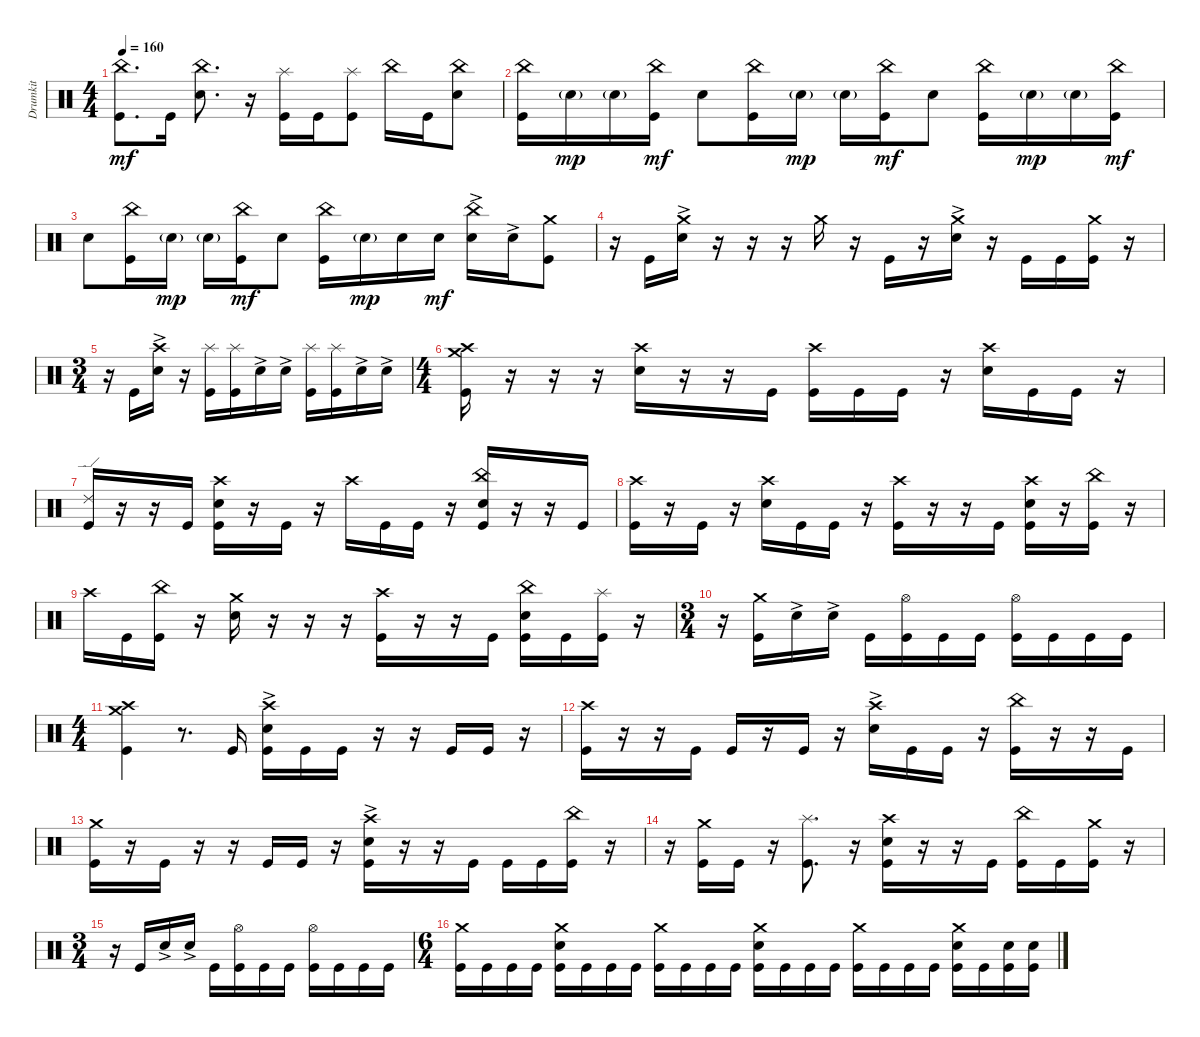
\track ("Drumkit" "Drumkit") {instrument percussion}
\staff {score}
\articulation defaults
\ts (4 4)
\tempo 160
\clef neutral
\ks c
("Kick (hit)" "China (hit)").8{d dy mf} "Kick (hit)".16 ("Snare (hit) 2" "China (hit)").8{d} r.16 ("Kick (hit)" "Splash (hit)").16 "Kick (hit)".16 ("Kick (hit)" "Splash (hit)").8 "China (hit)".16 "Kick (hit)".16 ("Snare (hit) 2" "China (hit)").8 |
("Kick (hit)" "China (hit)").16 "Snare (hit) 2"{g}.16{dy mp} "Snare (hit) 2"{g}.16 ("Kick (hit)" "China (hit)").16{dy mf} "Snare (hit) 2".8 ("Kick (hit)" "China (hit)").16 "Snare (hit) 2"{g}.16{dy mp} "Snare (hit) 2"{g}.16 ("Kick (hit)" "China (hit)").16{dy mf} "Snare (hit) 2".8 ("Kick (hit)" "China (hit)").16 "Snare (hit) 2"{g}.16{dy mp} "Snare (hit) 2"{g}.16 ("Kick (hit)" "China (hit)").16{dy mf} |
"Snare (hit) 2".8 ("Kick (hit)" "China (hit)").16 "Snare (hit) 2"{g}.16{dy mp} "Snare (hit) 2"{g}.16 ("Kick (hit)" "China (hit)").16{dy mf} "Snare (hit) 2".8 ("Kick (hit)" "China (hit)").16 "Snare (hit) 2"{g}.16{dy mp} "Snare (hit) 2".16 "Snare (hit) 2".16{dy mf} ("China (hit)" "Snare (hit) 2"{ac}).16 "Snare (hit) 2"{ac}.16 ("Kick (hit)" "Crash medium (hit)").8 |
r.16 "Kick (hit)".16 ("Snare (hit) 2"{ac} "Crash medium (hit)").16 r.16 r.16 r.16 "Crash medium (hit)".16 r.16 "Kick (hit)".16 r.16 ("Snare (hit) 2"{ac} "Crash medium (hit)").16 r.16 "Kick (hit)".16 "Kick (hit)".16 ("Crash medium (hit)" "Kick (hit)").16 r.16 |
\ts (3 4)
r.16 "Kick (hit)".16 ("Snare (hit) 2"{ac} "Crash high (hit)").16 r.16 ("Kick (hit)" "Splash (hit)").16 ("Kick (hit)" "Splash (hit)").16 "Snare (hit) 2"{ac}.16 "Snare (hit) 2"{ac}.16 ("Splash (hit)" "Kick (hit)").16 ("Splash (hit)" "Kick (hit)").16 "Snare (hit) 2"{ac}.16 "Snare (hit) 2"{ac}.16 |
\ts (4 4)
("Crash high (hit)" "Kick (hit)" "Crash medium (hit)").16 r.16 r.16 r.16 ("Crash high (hit)" "Snare (hit) 2").16 r.16 r.16 "Kick (hit)".16 ("Crash high (hit)" "Kick (hit)").16 "Kick (hit)".16 "Kick (hit)".16 r.16 ("Crash high (hit)" "Snare (hit) 2").16 "Kick (hit)".16 "Kick (hit)".16 r.16 |
("Kick (hit)" "Ride (edge) 2").16 r.16 r.16 "Kick (hit)".16 ("Kick (hit)" "Crash high (hit)" "Snare (hit) 2").16 r.16 "Kick (hit)".16 r.16 "Crash high (hit)".16 "Kick (hit)".16 "Kick (hit)".16 r.16 ("Kick (hit)" "Snare (hit) 2" "China (hit)").16 r.16 r.16 "Kick (hit)".16 |
("Kick (hit)" "Crash high (hit)").16 r.16 "Kick (hit)".16 r.16 ("Crash high (hit)" "Snare (hit) 2").16 "Kick (hit)".16 "Kick (hit)".16 r.16 ("Kick (hit)" "Crash high (hit)").16 r.16 r.16 "Kick (hit)".16 ("Kick (hit)" "Snare (hit) 2" "Crash high (hit)").16 r.16 ("Kick (hit)" "China (hit)").16 r.16 |
"Crash high (hit)".16 "Kick (hit)".16 ("Kick (hit)" "China (hit)").16 r.16 ("Snare (hit) 2" "Crash medium (hit)").16 r.16 r.16 r.16 ("Crash high (hit)" "Kick (hit)").16 r.16 r.16 "Kick (hit)".16 ("Snare (hit) 2" "Kick (hit)" "China (hit)").16 "Kick (hit)".16 ("Kick (hit)" "Splash (hit)").16 r.16 |
\ts (3 4)
r.16 ("Crash medium (hit)" "Kick (hit)").16 "Snare (hit) 2"{ac}.16 "Snare (hit) 2"{ac}.16 "Kick (hit)".16 ("Kick (hit)" "Hi-Hat (open)").16 "Kick (hit)".16 "Kick (hit)".16 ("Kick (hit)" "Hi-Hat (open)").16 "Kick (hit)".16 "Kick (hit)".16 "Kick (hit)".16 |
\ts (4 4)
("Crash high (hit)" "Kick (hit)" "Crash medium (hit)").4 r.8{d} "Kick (hit)".16 ("Crash high (hit)" "Kick (hit)" "Snare (hit) 2"{ac}).16 "Kick (hit)".16 "Kick (hit)".16 r.16 r.16 "Kick (hit)".16 "Kick (hit)".16 r.16 |
("Kick (hit)" "Crash high (hit)").16 r.16 r.16 "Kick (hit)".16 "Kick (hit)".16 r.16 "Kick (hit)".16 r.16 ("Crash high (hit)" "Snare (hit) 2"{ac}).16 "Kick (hit)".16 "Kick (hit)".16 r.16 ("Kick (hit)" "China (hit)").16 r.16 r.16 "Kick (hit)".16 |
("Kick (hit)" "Crash medium (hit)").16 r.16 "Kick (hit)".16 r.16 r.16 "Kick (hit)".16 "Kick (hit)".16 r.16 ("Kick (hit)" "Crash high (hit)" "Snare (hit) 2"{ac}).16 r.16 r.16 "Kick (hit)".16 "Kick (hit)".16 "Kick (hit)".16 ("Kick (hit)" "China (hit)").16 r.16 |
r.16 ("Kick (hit)" "Crash medium (hit)").16 "Kick (hit)".16 r.16 ("Splash (hit)" "Kick (hit)").8{d} r.16 ("Crash high (hit)" "Kick (hit)" "Snare (hit) 2").16 r.16 r.16 "Kick (hit)".16 ("Kick (hit)" "China (hit)").16 "Kick (hit)".16 ("Kick (hit)" "Crash medium (hit)").16 r.16 |
\ts (3 4)
r.16 "Kick (hit)".16 "Snare (hit) 2"{ac}.16 "Snare (hit) 2"{ac}.16 "Kick (hit)".16 ("Kick (hit)" "Hi-Hat (open)").16 "Kick (hit)".16 "Kick (hit)".16 ("Kick (hit)" "Hi-Hat (open)").16 "Kick (hit)".16 "Kick (hit)".16 "Kick (hit)".16 |
\ts (6 4)
("Crash medium (hit)" "Kick (hit)").16 "Kick (hit)".16 "Kick (hit)".16 "Kick (hit)".16 ("Kick (hit)" "Crash medium (hit)" "Snare (hit) 2").16 "Kick (hit)".16 "Kick (hit)".16 "Kick (hit)".16 ("Kick (hit)" "Crash medium (hit)").16 "Kick (hit)".16 "Kick (hit)".16 "Kick (hit)".16 ("Kick (hit)" "Crash medium (hit)" "Snare (hit) 2").16 "Kick (hit)".16 "Kick (hit)".16 "Kick (hit)".16 ("Kick (hit)" "Crash medium (hit)").16 "Kick (hit)".16 "Kick (hit)".16 "Kick (hit)".16 ("Snare (hit) 2" "Kick (hit)" "Crash medium (hit)").16 "Kick (hit)".16 ("Kick (hit)" "Snare (hit) 2").16 ("Kick (hit)" "Snare (hit) 2").16
